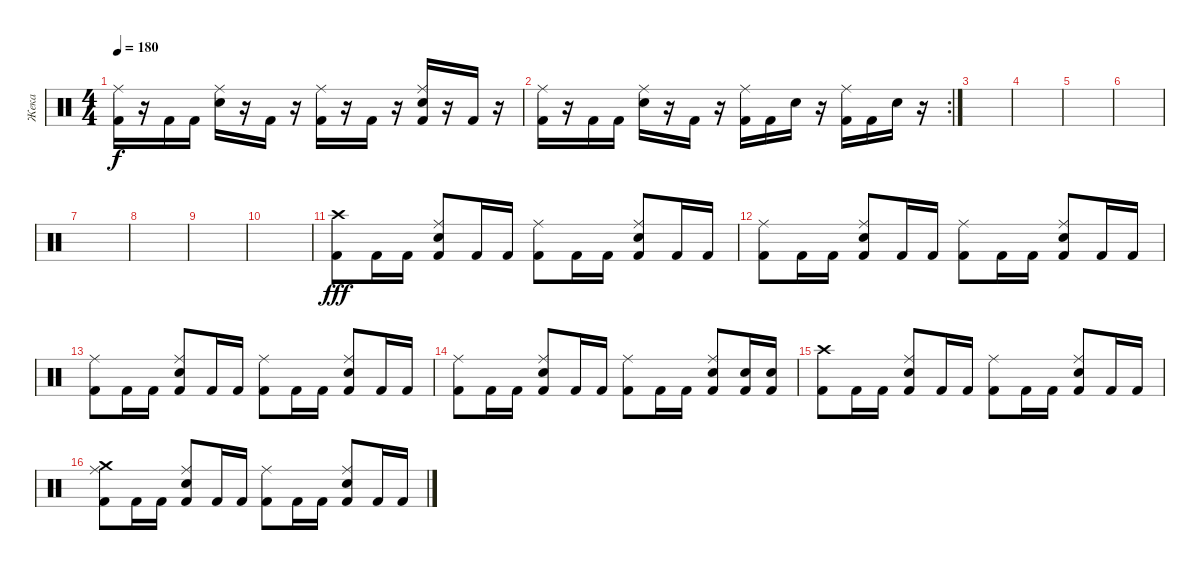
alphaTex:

\track ("Жека" "Жека") {instrument percussion}
\staff {score}
\articulation defaults
\ts (4 4)
\tempo 180
\clef neutral
\ks c
("Kick (hit) 2" "Ride (middle)").16{dy f} r.16 "Kick (hit) 2".16 "Kick (hit) 2".16 ("Ride (middle)" "Snare (hit) 2").16 r.16 "Kick (hit) 2".16 r.16 ("Kick (hit) 2" "Ride (middle)").16 r.16 "Kick (hit) 2".16 r.16 ("Kick (hit) 2" "Ride (middle)" "Snare (hit) 2").16 r.16 "Kick (hit) 2".16 r.16 |
\rc 2
("Kick (hit) 2" "Ride (middle)").16 r.16 "Kick (hit) 2".16 "Kick (hit) 2".16 ("Ride (middle)" "Snare (hit) 2").16 r.16 "Kick (hit) 2".16 r.16 ("Kick (hit) 2" "Ride (middle)").16 "Kick (hit) 2".16 "Snare (hit) 2".16 r.16 ("Kick (hit) 2" "Ride (middle)").16 "Kick (hit) 2".16 "Snare (hit) 2".16 r.16 |
|
|
|
|
|
|
|
|
("Kick (hit) 2" "Crash high (hit)").8{dy fff} "Kick (hit) 2".16 "Kick (hit) 2".16 ("Ride (middle)" "Kick (hit) 2" "Snare (hit) 2").8 "Kick (hit) 2".16 "Kick (hit) 2".16 ("Ride (middle)" "Kick (hit) 2").8 "Kick (hit) 2".16 "Kick (hit) 2".16 ("Ride (middle)" "Kick (hit) 2" "Snare (hit) 2").8 "Kick (hit) 2".16 "Kick (hit) 2".16 |
("Ride (middle)" "Kick (hit) 2").8 "Kick (hit) 2".16 "Kick (hit) 2".16 ("Ride (middle)" "Kick (hit) 2" "Snare (hit) 2").8 "Kick (hit) 2".16 "Kick (hit) 2".16 ("Ride (middle)" "Kick (hit) 2").8 "Kick (hit) 2".16 "Kick (hit) 2".16 ("Ride (middle)" "Kick (hit) 2" "Snare (hit) 2").8 "Kick (hit) 2".16 "Kick (hit) 2".16 |
("Ride (middle)" "Kick (hit) 2").8 "Kick (hit) 2".16 "Kick (hit) 2".16 ("Ride (middle)" "Kick (hit) 2" "Snare (hit) 2").8 "Kick (hit) 2".16 "Kick (hit) 2".16 ("Ride (middle)" "Kick (hit) 2").8 "Kick (hit) 2".16 "Kick (hit) 2".16 ("Ride (middle)" "Kick (hit) 2" "Snare (hit) 2").8 "Kick (hit) 2".16 "Kick (hit) 2".16 |
("Ride (middle)" "Kick (hit) 2").8 "Kick (hit) 2".16 "Kick (hit) 2".16 ("Ride (middle)" "Kick (hit) 2" "Snare (hit) 2").8 "Kick (hit) 2".16 "Kick (hit) 2".16 ("Ride (middle)" "Kick (hit) 2").8 "Kick (hit) 2".16 "Kick (hit) 2".16 ("Ride (middle)" "Kick (hit) 2" "Snare (hit) 2").8 ("Kick (hit) 2" "Snare (hit) 2").16 ("Kick (hit) 2" "Snare (hit) 2").16 |
("Kick (hit) 2" "Crash high (hit)").8 "Kick (hit) 2".16 "Kick (hit) 2".16 ("Ride (middle)" "Kick (hit) 2" "Snare (hit) 2").8 "Kick (hit) 2".16 "Kick (hit) 2".16 ("Ride (middle)" "Kick (hit) 2").8 "Kick (hit) 2".16 "Kick (hit) 2".16 ("Ride (middle)" "Kick (hit) 2" "Snare (hit) 2").8 "Kick (hit) 2".16 "Kick (hit) 2".16 |
("Ride (middle)" "Kick (hit) 2" "Crash medium (hit)").8 "Kick (hit) 2".16 "Kick (hit) 2".16 ("Ride (middle)" "Kick (hit) 2" "Snare (hit) 2").8 "Kick (hit) 2".16 "Kick (hit) 2".16 ("Ride (middle)" "Kick (hit) 2").8 "Kick (hit) 2".16 "Kick (hit) 2".16 ("Ride (middle)" "Kick (hit) 2" "Snare (hit) 2").8 "Kick (hit) 2".16 "Kick (hit) 2".16
